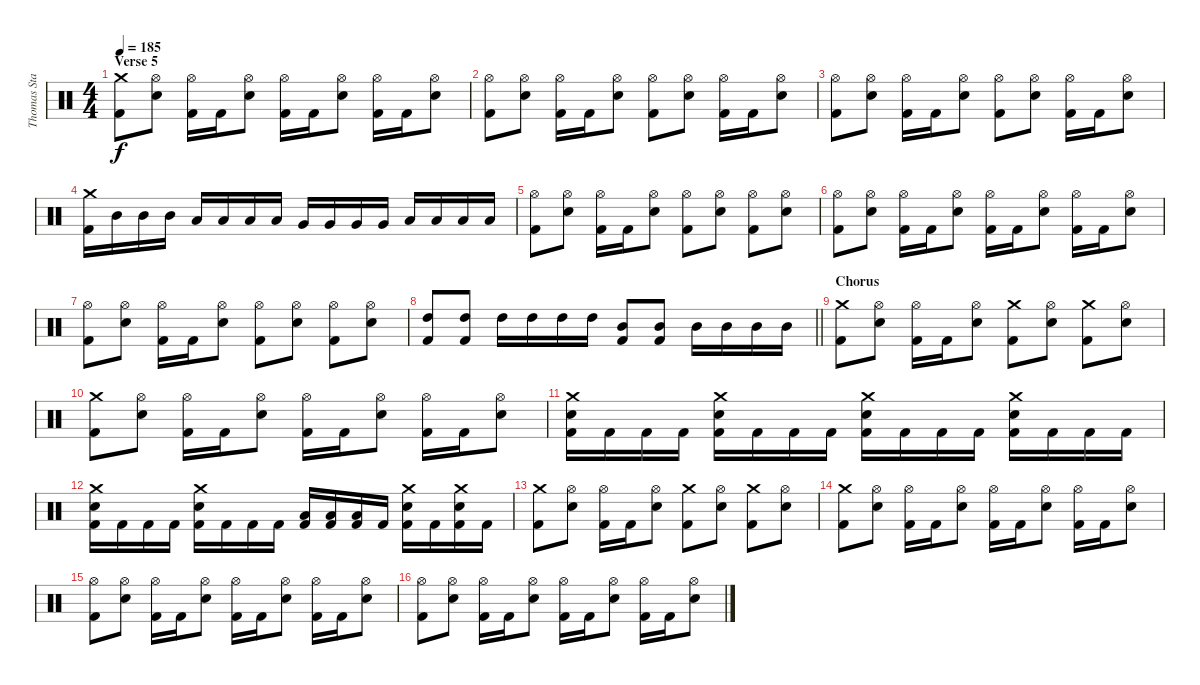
\track ("Thomas Stauch" "Thomas Sta") {instrument percussion}
\staff {score}
\articulation defaults
\ts (4 4)
\section ("" "Verse 5")
\tempo 185
\clef neutral
\ks c
("Crash medium (hit)" "Kick (hit) 2").8{dy f} ("Hi-Hat (open)" "Electric Snare (hit)").8 ("Hi-Hat (open)" "Kick (hit) 2").16 "Kick (hit) 2".16 ("Hi-Hat (open)" "Electric Snare (hit)").8 ("Hi-Hat (open)" "Kick (hit) 2").16 "Kick (hit) 2".16 ("Hi-Hat (open)" "Electric Snare (hit)").8 ("Hi-Hat (open)" "Kick (hit) 2").16 "Kick (hit) 2".16 ("Hi-Hat (open)" "Electric Snare (hit)").8 |
("Hi-Hat (open)" "Kick (hit) 2").8 ("Hi-Hat (open)" "Electric Snare (hit)").8 ("Hi-Hat (open)" "Kick (hit) 2").16 "Kick (hit) 2".16 ("Hi-Hat (open)" "Electric Snare (hit)").8 ("Hi-Hat (open)" "Kick (hit) 2").8 ("Hi-Hat (open)" "Electric Snare (hit)").8 ("Hi-Hat (open)" "Kick (hit) 2").16 "Kick (hit) 2".16 ("Hi-Hat (open)" "Electric Snare (hit)").8 |
("Hi-Hat (open)" "Kick (hit) 2").8 ("Hi-Hat (open)" "Electric Snare (hit)").8 ("Hi-Hat (open)" "Kick (hit) 2").16 "Kick (hit) 2".16 ("Hi-Hat (open)" "Electric Snare (hit)").8 ("Hi-Hat (open)" "Kick (hit) 2").8 ("Hi-Hat (open)" "Electric Snare (hit)").8 ("Hi-Hat (open)" "Kick (hit) 2").16 "Kick (hit) 2".16 ("Hi-Hat (open)" "Electric Snare (hit)").8 |
("Crash medium (hit)" "Kick (hit) 2").16 "Mid Tom (hit)".16 "Mid Tom (hit)".16 "Mid Tom (hit)".16 "Low Tom (hit)".16 "Low Tom (hit)".16 "Low Tom (hit)".16 "Low Tom (hit)".16 "Very Low Tom (hit)".16 "Very Low Tom (hit)".16 "Very Low Tom (hit)".16 "Very Low Tom (hit)".16 "Low Floor Tom (hit)".16 "Low Floor Tom (hit)".16 "Low Floor Tom (hit)".16 "Low Floor Tom (hit)".16 |
("Hi-Hat (open)" "Kick (hit) 2").8 ("Hi-Hat (open)" "Electric Snare (hit)").8 ("Hi-Hat (open)" "Kick (hit) 2").16 "Kick (hit) 2".16 ("Hi-Hat (open)" "Electric Snare (hit)").8 ("Hi-Hat (open)" "Kick (hit) 2").8 ("Hi-Hat (open)" "Electric Snare (hit)").8 ("Hi-Hat (open)" "Kick (hit) 2").8 ("Hi-Hat (open)" "Electric Snare (hit)").8 |
("Hi-Hat (open)" "Kick (hit) 2").8 ("Hi-Hat (open)" "Electric Snare (hit)").8 ("Hi-Hat (open)" "Kick (hit) 2").16 "Kick (hit) 2".16 ("Hi-Hat (open)" "Electric Snare (hit)").8 ("Hi-Hat (open)" "Kick (hit) 2").16 "Kick (hit) 2".16 ("Hi-Hat (open)" "Electric Snare (hit)").8 ("Hi-Hat (open)" "Kick (hit) 2").16 "Kick (hit) 2".16 ("Hi-Hat (open)" "Electric Snare (hit)").8 |
("Hi-Hat (open)" "Kick (hit) 2").8 ("Hi-Hat (open)" "Electric Snare (hit)").8 ("Hi-Hat (open)" "Kick (hit) 2").16 "Kick (hit) 2".16 ("Hi-Hat (open)" "Electric Snare (hit)").8 ("Hi-Hat (open)" "Kick (hit) 2").8 ("Hi-Hat (open)" "Electric Snare (hit)").8 ("Hi-Hat (open)" "Kick (hit) 2").8 ("Hi-Hat (open)" "Electric Snare (hit)").8 |
\barLineRight lightlight
("High Tom (hit)" "Kick (hit) 2").8 ("High Tom (hit)" "Kick (hit) 2").8 "High Tom (hit)".16 "High Tom (hit)".16 "High Tom (hit)".16 "High Tom (hit)".16 ("Mid Tom (hit)" "Kick (hit) 2").8 ("Mid Tom (hit)" "Kick (hit) 2").8 "Mid Tom (hit)".16 "Mid Tom (hit)".16 "Mid Tom (hit)".16 "Mid Tom (hit)".16 |
\section ("" "Chorus")
("Crash medium (hit)" "Kick (hit) 2").8 ("Hi-Hat (open)" "Electric Snare (hit)").8 ("Hi-Hat (open)" "Kick (hit) 2").16 "Kick (hit) 2".16 ("Hi-Hat (open)" "Electric Snare (hit)").8 ("Crash medium (hit)" "Kick (hit) 2").8 ("Hi-Hat (open)" "Electric Snare (hit)").8 ("Crash medium (hit)" "Kick (hit) 2").8 ("Hi-Hat (open)" "Electric Snare (hit)").8 |
("Crash medium (hit)" "Kick (hit) 2").8 ("Hi-Hat (open)" "Electric Snare (hit)").8 ("Hi-Hat (open)" "Kick (hit) 2").16 "Kick (hit) 2".16 ("Hi-Hat (open)" "Electric Snare (hit)").8 ("Hi-Hat (open)" "Kick (hit) 2").16 "Kick (hit) 2".16 ("Hi-Hat (open)" "Electric Snare (hit)").8 ("Hi-Hat (open)" "Kick (hit) 2").16 "Kick (hit) 2".16 ("Hi-Hat (open)" "Electric Snare (hit)").8 |
("Crash medium (hit)" "Electric Snare (hit)" "Kick (hit) 2").16 "Kick (hit) 2".16 "Kick (hit) 2".16 "Kick (hit) 2".16 ("Crash medium (hit)" "Electric Snare (hit)" "Kick (hit) 2").16 "Kick (hit) 2".16 "Kick (hit) 2".16 "Kick (hit) 2".16 ("Crash medium (hit)" "Electric Snare (hit)" "Kick (hit) 2").16 "Kick (hit) 2".16 "Kick (hit) 2".16 "Kick (hit) 2".16 ("Crash medium (hit)" "Electric Snare (hit)" "Kick (hit) 2").16 "Kick (hit) 2".16 "Kick (hit) 2".16 "Kick (hit) 2".16 |
("Crash medium (hit)" "Electric Snare (hit)" "Kick (hit) 2").16 "Kick (hit) 2".16 "Kick (hit) 2".16 "Kick (hit) 2".16 ("Crash medium (hit)" "Electric Snare (hit)" "Kick (hit) 2").16 "Kick (hit) 2".16 "Kick (hit) 2".16 "Kick (hit) 2".16 ("Low Tom (hit)" "Kick (hit) 2").16 ("Low Tom (hit)" "Kick (hit) 2").16 ("Low Tom (hit)" "Kick (hit) 2").16 "Kick (hit) 2".16 ("Crash medium (hit)" "Electric Snare (hit)" "Kick (hit) 2").16 "Kick (hit) 2".16 ("Crash medium (hit)" "Electric Snare (hit)" "Kick (hit) 2").16 "Kick (hit) 2".16 |
("Crash medium (hit)" "Kick (hit) 2").8 ("Hi-Hat (open)" "Electric Snare (hit)").8 ("Hi-Hat (open)" "Kick (hit) 2").16 "Kick (hit) 2".16 ("Hi-Hat (open)" "Electric Snare (hit)").8 ("Crash medium (hit)" "Kick (hit) 2").8 ("Hi-Hat (open)" "Electric Snare (hit)").8 ("Crash medium (hit)" "Kick (hit) 2").8 ("Hi-Hat (open)" "Electric Snare (hit)").8 |
("Crash medium (hit)" "Kick (hit) 2").8 ("Hi-Hat (open)" "Electric Snare (hit)").8 ("Hi-Hat (open)" "Kick (hit) 2").16 "Kick (hit) 2".16 ("Hi-Hat (open)" "Electric Snare (hit)").8 ("Hi-Hat (open)" "Kick (hit) 2").16 "Kick (hit) 2".16 ("Hi-Hat (open)" "Electric Snare (hit)").8 ("Hi-Hat (open)" "Kick (hit) 2").16 "Kick (hit) 2".16 ("Hi-Hat (open)" "Electric Snare (hit)").8 |
("Hi-Hat (open)" "Kick (hit) 2").8 ("Hi-Hat (open)" "Electric Snare (hit)").8 ("Hi-Hat (open)" "Kick (hit) 2").16 "Kick (hit) 2".16 ("Hi-Hat (open)" "Electric Snare (hit)").8 ("Hi-Hat (open)" "Kick (hit) 2").16 "Kick (hit) 2".16 ("Hi-Hat (open)" "Electric Snare (hit)").8 ("Hi-Hat (open)" "Kick (hit) 2").16 "Kick (hit) 2".16 ("Hi-Hat (open)" "Electric Snare (hit)").8 |
("Hi-Hat (open)" "Kick (hit) 2").8 ("Hi-Hat (open)" "Electric Snare (hit)").8 ("Hi-Hat (open)" "Kick (hit) 2").16 "Kick (hit) 2".16 ("Hi-Hat (open)" "Electric Snare (hit)").8 ("Hi-Hat (open)" "Kick (hit) 2").16 "Kick (hit) 2".16 ("Hi-Hat (open)" "Electric Snare (hit)").8 ("Hi-Hat (open)" "Kick (hit) 2").16 "Kick (hit) 2".16 ("Hi-Hat (open)" "Electric Snare (hit)").8
